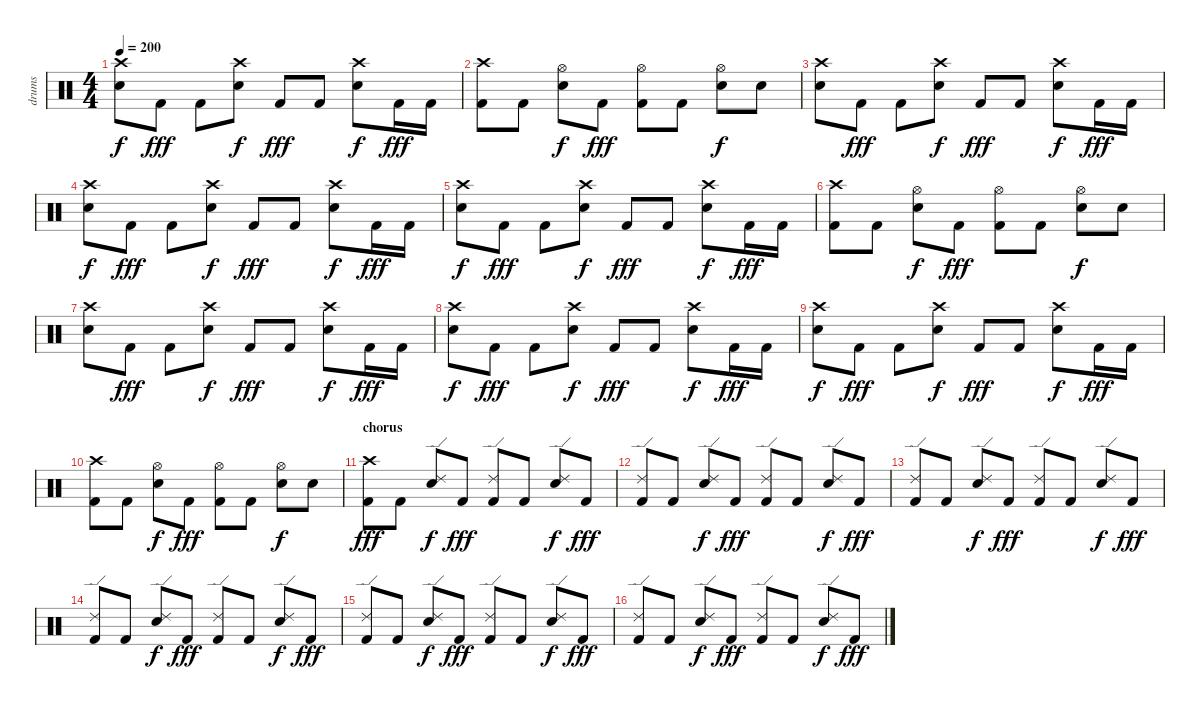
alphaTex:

\track ("drums" "drums") {instrument percussion}
\staff {score}
\articulation defaults
\ts (4 4)
\tempo 200
\clef neutral
\ks c
("Crash high (hit)" "Snare (hit) 2").8{dy f} "Kick (hit) 2".8{dy fff} "Kick (hit) 2".8 ("Crash high (hit)" "Snare (hit) 2").8{dy f} "Kick (hit) 2".8{dy fff} "Kick (hit) 2".8 ("Crash high (hit)" "Snare (hit) 2").8{dy f} "Kick (hit) 2".16{dy fff} "Kick (hit) 2".16 |
("Crash high (hit)" "Kick (hit) 2").8 "Kick (hit) 2".8 ("Hi-Hat (open)" "Snare (hit) 2").8{dy f} "Kick (hit) 2".8{dy fff} ("Hi-Hat (open)" "Kick (hit) 2").8 "Kick (hit) 2".8 ("Hi-Hat (open)" "Snare (hit) 2").8{dy f} "Snare (hit) 2".8 |
("Crash high (hit)" "Snare (hit) 2").8 "Kick (hit) 2".8{dy fff} "Kick (hit) 2".8 ("Crash high (hit)" "Snare (hit) 2").8{dy f} "Kick (hit) 2".8{dy fff} "Kick (hit) 2".8 ("Crash high (hit)" "Snare (hit) 2").8{dy f} "Kick (hit) 2".16{dy fff} "Kick (hit) 2".16 |
("Crash high (hit)" "Snare (hit) 2").8{dy f} "Kick (hit) 2".8{dy fff} "Kick (hit) 2".8 ("Crash high (hit)" "Snare (hit) 2").8{dy f} "Kick (hit) 2".8{dy fff} "Kick (hit) 2".8 ("Crash high (hit)" "Snare (hit) 2").8{dy f} "Kick (hit) 2".16{dy fff} "Kick (hit) 2".16 |
("Crash high (hit)" "Snare (hit) 2").8{dy f} "Kick (hit) 2".8{dy fff} "Kick (hit) 2".8 ("Crash high (hit)" "Snare (hit) 2").8{dy f} "Kick (hit) 2".8{dy fff} "Kick (hit) 2".8 ("Crash high (hit)" "Snare (hit) 2").8{dy f} "Kick (hit) 2".16{dy fff} "Kick (hit) 2".16 |
("Crash high (hit)" "Kick (hit) 2").8 "Kick (hit) 2".8 ("Hi-Hat (open)" "Snare (hit) 2").8{dy f} "Kick (hit) 2".8{dy fff} ("Hi-Hat (open)" "Kick (hit) 2").8 "Kick (hit) 2".8 ("Hi-Hat (open)" "Snare (hit) 2").8{dy f} "Snare (hit) 2".8 |
("Crash high (hit)" "Snare (hit) 2").8 "Kick (hit) 2".8{dy fff} "Kick (hit) 2".8 ("Crash high (hit)" "Snare (hit) 2").8{dy f} "Kick (hit) 2".8{dy fff} "Kick (hit) 2".8 ("Crash high (hit)" "Snare (hit) 2").8{dy f} "Kick (hit) 2".16{dy fff} "Kick (hit) 2".16 |
("Crash high (hit)" "Snare (hit) 2").8{dy f} "Kick (hit) 2".8{dy fff} "Kick (hit) 2".8 ("Crash high (hit)" "Snare (hit) 2").8{dy f} "Kick (hit) 2".8{dy fff} "Kick (hit) 2".8 ("Crash high (hit)" "Snare (hit) 2").8{dy f} "Kick (hit) 2".16{dy fff} "Kick (hit) 2".16 |
("Crash high (hit)" "Snare (hit) 2").8{dy f} "Kick (hit) 2".8{dy fff} "Kick (hit) 2".8 ("Crash high (hit)" "Snare (hit) 2").8{dy f} "Kick (hit) 2".8{dy fff} "Kick (hit) 2".8 ("Crash high (hit)" "Snare (hit) 2").8{dy f} "Kick (hit) 2".16{dy fff} "Kick (hit) 2".16 |
("Crash high (hit)" "Kick (hit) 2").8 "Kick (hit) 2".8 ("Hi-Hat (open)" "Snare (hit) 2").8{dy f} "Kick (hit) 2".8{dy fff} ("Hi-Hat (open)" "Kick (hit) 2").8 "Kick (hit) 2".8 ("Hi-Hat (open)" "Snare (hit) 2").8{dy f} "Snare (hit) 2".8 |
\section ("" "chorus")
("Crash high (hit)" "Kick (hit) 2").8{dy fff} "Kick (hit) 2".8 ("Ride (edge) 2" "Snare (hit) 2").8{dy f} "Kick (hit) 2".8{dy fff} ("Ride (edge) 2" "Kick (hit) 2").8 "Kick (hit) 2".8 ("Ride (edge) 2" "Snare (hit) 2").8{dy f} "Kick (hit) 2".8{dy fff} |
("Ride (edge) 2" "Kick (hit) 2").8 "Kick (hit) 2".8 ("Ride (edge) 2" "Snare (hit) 2").8{dy f} "Kick (hit) 2".8{dy fff} ("Ride (edge) 2" "Kick (hit) 2").8 "Kick (hit) 2".8 ("Ride (edge) 2" "Snare (hit) 2").8{dy f} "Kick (hit) 2".8{dy fff} |
("Ride (edge) 2" "Kick (hit) 2").8 "Kick (hit) 2".8 ("Ride (edge) 2" "Snare (hit) 2").8{dy f} "Kick (hit) 2".8{dy fff} ("Ride (edge) 2" "Kick (hit) 2").8 "Kick (hit) 2".8 ("Ride (edge) 2" "Snare (hit) 2").8{dy f} "Kick (hit) 2".8{dy fff} |
("Ride (edge) 2" "Kick (hit) 2").8 "Kick (hit) 2".8 ("Ride (edge) 2" "Snare (hit) 2").8{dy f} "Kick (hit) 2".8{dy fff} ("Ride (edge) 2" "Kick (hit) 2").8 "Kick (hit) 2".8 ("Ride (edge) 2" "Snare (hit) 2").8{dy f} "Kick (hit) 2".8{dy fff} |
("Ride (edge) 2" "Kick (hit) 2").8 "Kick (hit) 2".8 ("Ride (edge) 2" "Snare (hit) 2").8{dy f} "Kick (hit) 2".8{dy fff} ("Ride (edge) 2" "Kick (hit) 2").8 "Kick (hit) 2".8 ("Ride (edge) 2" "Snare (hit) 2").8{dy f} "Kick (hit) 2".8{dy fff} |
("Ride (edge) 2" "Kick (hit) 2").8 "Kick (hit) 2".8 ("Ride (edge) 2" "Snare (hit) 2").8{dy f} "Kick (hit) 2".8{dy fff} ("Ride (edge) 2" "Kick (hit) 2").8 "Kick (hit) 2".8 ("Ride (edge) 2" "Snare (hit) 2").8{dy f} "Kick (hit) 2".8{dy fff}
